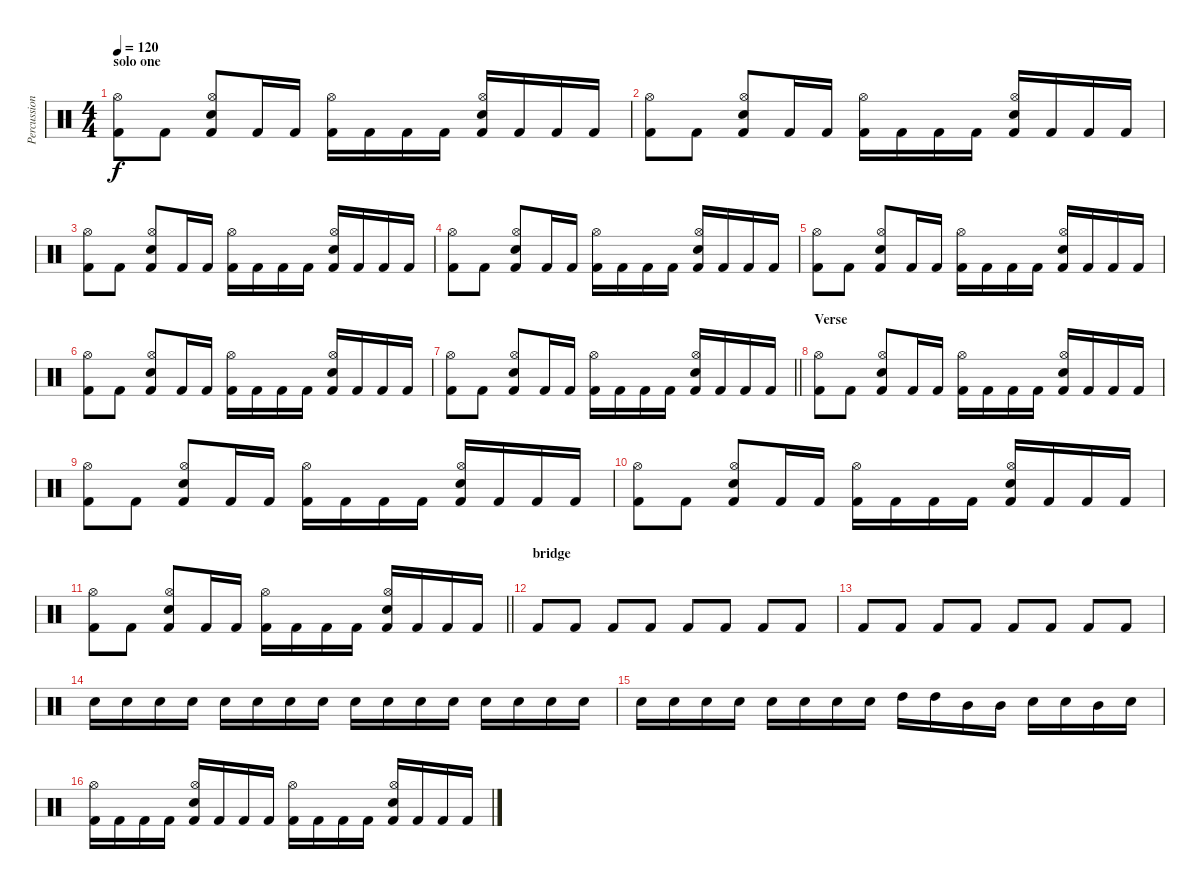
\track ("Percussion" "Percussion") {instrument percussion}
\staff {score}
\articulation defaults
\ts (4 4)
\section ("" "solo one")
\tempo 120
\clef neutral
\ks c
("Kick (hit) 2" "Hi-Hat (open)").8{dy f} "Kick (hit) 2".8 ("Kick (hit) 2" "Hi-Hat (open)" "Electric Snare (hit)").8 "Kick (hit) 2".16 "Kick (hit) 2".16 ("Kick (hit) 2" "Hi-Hat (open)").16 "Kick (hit) 2".16 "Kick (hit) 2".16 "Kick (hit) 2".16 ("Kick (hit) 2" "Hi-Hat (open)" "Electric Snare (hit)").16 "Kick (hit) 2".16 "Kick (hit) 2".16 "Kick (hit) 2".16 |
("Kick (hit) 2" "Hi-Hat (open)").8 "Kick (hit) 2".8 ("Kick (hit) 2" "Hi-Hat (open)" "Electric Snare (hit)").8 "Kick (hit) 2".16 "Kick (hit) 2".16 ("Kick (hit) 2" "Hi-Hat (open)").16 "Kick (hit) 2".16 "Kick (hit) 2".16 "Kick (hit) 2".16 ("Kick (hit) 2" "Hi-Hat (open)" "Electric Snare (hit)").16 "Kick (hit) 2".16 "Kick (hit) 2".16 "Kick (hit) 2".16 |
("Kick (hit) 2" "Hi-Hat (open)").8 "Kick (hit) 2".8 ("Kick (hit) 2" "Hi-Hat (open)" "Electric Snare (hit)").8 "Kick (hit) 2".16 "Kick (hit) 2".16 ("Kick (hit) 2" "Hi-Hat (open)").16 "Kick (hit) 2".16 "Kick (hit) 2".16 "Kick (hit) 2".16 ("Kick (hit) 2" "Hi-Hat (open)" "Electric Snare (hit)").16 "Kick (hit) 2".16 "Kick (hit) 2".16 "Kick (hit) 2".16 |
("Kick (hit) 2" "Hi-Hat (open)").8 "Kick (hit) 2".8 ("Kick (hit) 2" "Hi-Hat (open)" "Electric Snare (hit)").8 "Kick (hit) 2".16 "Kick (hit) 2".16 ("Kick (hit) 2" "Hi-Hat (open)").16 "Kick (hit) 2".16 "Kick (hit) 2".16 "Kick (hit) 2".16 ("Kick (hit) 2" "Hi-Hat (open)" "Electric Snare (hit)").16 "Kick (hit) 2".16 "Kick (hit) 2".16 "Kick (hit) 2".16 |
("Kick (hit) 2" "Hi-Hat (open)").8 "Kick (hit) 2".8 ("Kick (hit) 2" "Hi-Hat (open)" "Electric Snare (hit)").8 "Kick (hit) 2".16 "Kick (hit) 2".16 ("Kick (hit) 2" "Hi-Hat (open)").16 "Kick (hit) 2".16 "Kick (hit) 2".16 "Kick (hit) 2".16 ("Kick (hit) 2" "Hi-Hat (open)" "Electric Snare (hit)").16 "Kick (hit) 2".16 "Kick (hit) 2".16 "Kick (hit) 2".16 |
("Kick (hit) 2" "Hi-Hat (open)").8 "Kick (hit) 2".8 ("Kick (hit) 2" "Hi-Hat (open)" "Electric Snare (hit)").8 "Kick (hit) 2".16 "Kick (hit) 2".16 ("Kick (hit) 2" "Hi-Hat (open)").16 "Kick (hit) 2".16 "Kick (hit) 2".16 "Kick (hit) 2".16 ("Kick (hit) 2" "Hi-Hat (open)" "Electric Snare (hit)").16 "Kick (hit) 2".16 "Kick (hit) 2".16 "Kick (hit) 2".16 |
\barLineRight lightlight
("Kick (hit) 2" "Hi-Hat (open)").8 "Kick (hit) 2".8 ("Kick (hit) 2" "Hi-Hat (open)" "Electric Snare (hit)").8 "Kick (hit) 2".16 "Kick (hit) 2".16 ("Kick (hit) 2" "Hi-Hat (open)").16 "Kick (hit) 2".16 "Kick (hit) 2".16 "Kick (hit) 2".16 ("Kick (hit) 2" "Hi-Hat (open)" "Electric Snare (hit)").16 "Kick (hit) 2".16 "Kick (hit) 2".16 "Kick (hit) 2".16 |
\section ("" "Verse")
("Kick (hit) 2" "Hi-Hat (open)").8 "Kick (hit) 2".8 ("Kick (hit) 2" "Hi-Hat (open)" "Electric Snare (hit)").8 "Kick (hit) 2".16 "Kick (hit) 2".16 ("Kick (hit) 2" "Hi-Hat (open)").16 "Kick (hit) 2".16 "Kick (hit) 2".16 "Kick (hit) 2".16 ("Kick (hit) 2" "Hi-Hat (open)" "Electric Snare (hit)").16 "Kick (hit) 2".16 "Kick (hit) 2".16 "Kick (hit) 2".16 |
("Kick (hit) 2" "Hi-Hat (open)").8 "Kick (hit) 2".8 ("Kick (hit) 2" "Hi-Hat (open)" "Electric Snare (hit)").8 "Kick (hit) 2".16 "Kick (hit) 2".16 ("Kick (hit) 2" "Hi-Hat (open)").16 "Kick (hit) 2".16 "Kick (hit) 2".16 "Kick (hit) 2".16 ("Kick (hit) 2" "Hi-Hat (open)" "Electric Snare (hit)").16 "Kick (hit) 2".16 "Kick (hit) 2".16 "Kick (hit) 2".16 |
("Kick (hit) 2" "Hi-Hat (open)").8 "Kick (hit) 2".8 ("Kick (hit) 2" "Hi-Hat (open)" "Electric Snare (hit)").8 "Kick (hit) 2".16 "Kick (hit) 2".16 ("Kick (hit) 2" "Hi-Hat (open)").16 "Kick (hit) 2".16 "Kick (hit) 2".16 "Kick (hit) 2".16 ("Kick (hit) 2" "Hi-Hat (open)" "Electric Snare (hit)").16 "Kick (hit) 2".16 "Kick (hit) 2".16 "Kick (hit) 2".16 |
\barLineRight lightlight
("Kick (hit) 2" "Hi-Hat (open)").8 "Kick (hit) 2".8 ("Kick (hit) 2" "Hi-Hat (open)" "Electric Snare (hit)").8 "Kick (hit) 2".16 "Kick (hit) 2".16 ("Kick (hit) 2" "Hi-Hat (open)").16 "Kick (hit) 2".16 "Kick (hit) 2".16 "Kick (hit) 2".16 ("Kick (hit) 2" "Hi-Hat (open)" "Electric Snare (hit)").16 "Kick (hit) 2".16 "Kick (hit) 2".16 "Kick (hit) 2".16 |
\section ("" "bridge")
"Kick (hit) 2".8 "Kick (hit) 2".8 "Kick (hit) 2".8 "Kick (hit) 2".8 "Kick (hit) 2".8 "Kick (hit) 2".8 "Kick (hit) 2".8 "Kick (hit) 2".8 |
"Kick (hit) 2".8 "Kick (hit) 2".8 "Kick (hit) 2".8 "Kick (hit) 2".8 "Kick (hit) 2".8 "Kick (hit) 2".8 "Kick (hit) 2".8 "Kick (hit) 2".8{volume 2} |
"Electric Snare (hit)".16{volume 3} "Electric Snare (hit)".16 "Electric Snare (hit)".16 "Electric Snare (hit)".16{volume 7} "Electric Snare (hit)".16 "Electric Snare (hit)".16 "Electric Snare (hit)".16{volume 9} "Electric Snare (hit)".16 "Electric Snare (hit)".16 "Electric Snare (hit)".16 "Electric Snare (hit)".16{volume 11} "Electric Snare (hit)".16 "Electric Snare (hit)".16 "Electric Snare (hit)".16{volume 14} "Electric Snare (hit)".16 "Electric Snare (hit)".16 |
"Electric Snare (hit)".16 "Electric Snare (hit)".16 "Electric Snare (hit)".16 "Electric Snare (hit)".16 "Electric Snare (hit)".16 "Electric Snare (hit)".16 "Electric Snare (hit)".16 "Electric Snare (hit)".16 "High Tom (hit)".16 "High Tom (hit)".16 "Mid Tom (hit)".16 "Mid Tom (hit)".16 "Electric Snare (hit)".16 "Electric Snare (hit)".16 "Mid Tom (hit)".16 "Electric Snare (hit)".16 |
("Kick (hit) 2" "Hi-Hat (open)").16 "Kick (hit) 2".16 "Kick (hit) 2".16 "Kick (hit) 2".16 ("Kick (hit) 2" "Hi-Hat (open)" "Electric Snare (hit)").16 "Kick (hit) 2".16 "Kick (hit) 2".16 "Kick (hit) 2".16 ("Kick (hit) 2" "Hi-Hat (open)").16 "Kick (hit) 2".16 "Kick (hit) 2".16 "Kick (hit) 2".16 ("Kick (hit) 2" "Hi-Hat (open)" "Electric Snare (hit)").16 "Kick (hit) 2".16 "Kick (hit) 2".16 "Kick (hit) 2".16
